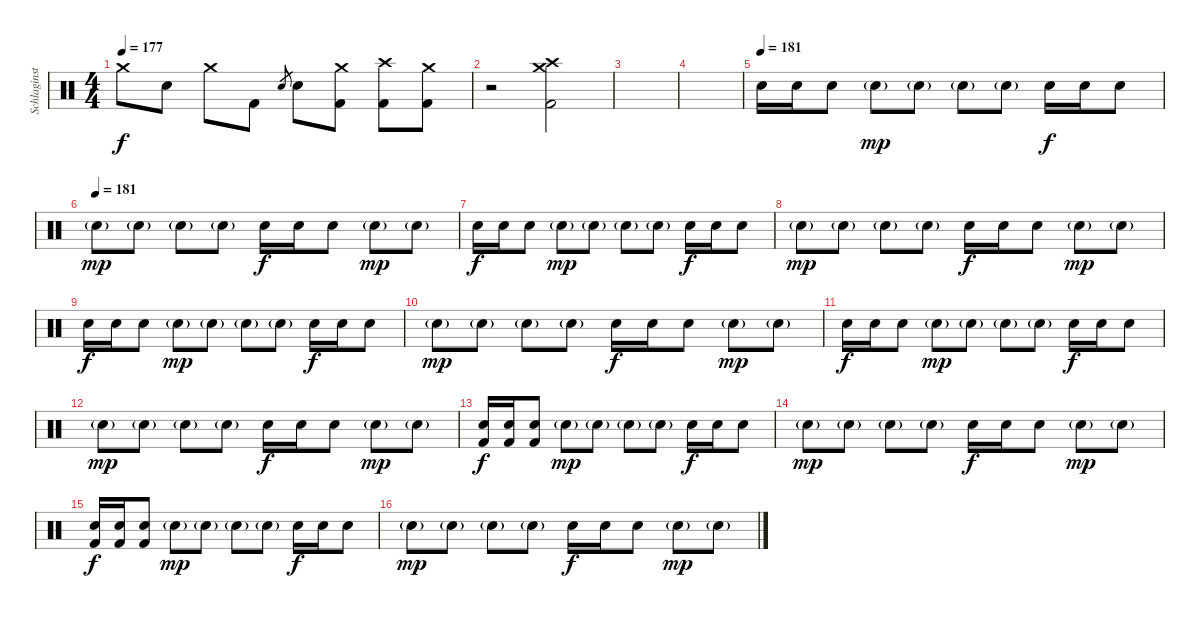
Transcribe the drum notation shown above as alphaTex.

\track ("Schlaginstrumente - Auswahl" "Schlaginst") {instrument percussion}
\staff {score}
\articulation defaults
\ts (4 4)
\tempo 177
\clef neutral
\ks c "Crash medium (hit)".8{dy f} "Snare (hit) 2".8 "Crash medium (hit)".8 "Kick (hit) 2".8 "Snare (hit) 2".8{gr} "Snare (hit) 2".8
("Crash medium (hit)" "Kick (hit) 2").8 ("Crash high (hit)" "Kick (hit) 2").8 ("Crash medium (hit)" "Kick (hit) 2").8 |
r.2 ("Crash medium (hit)" "Crash high (hit)" "Kick (hit) 2").2 |
|
|
\tempo (181)
"Snare (hit) 2".16{volume 7} "Snare (hit) 2".16 "Snare (hit) 2".8 "Snare (hit) 2"{g}.8{dy mp} "Snare (hit) 2"{g}.8 "Snare (hit) 2"{g}.8 "Snare (hit) 2"{g}.8 "Snare (hit) 2".16{dy f} "Snare (hit) 2".16 "Snare (hit) 2".8 |
\tempo (181)
"Snare (hit) 2"{g}.8{dy mp} "Snare (hit) 2"{g}.8 "Snare (hit) 2"{g}.8 "Snare (hit) 2"{g}.8 "Snare (hit) 2".16{dy f} "Snare (hit) 2".16 "Snare (hit) 2".8 "Snare (hit) 2"{g}.8{dy mp} "Snare (hit) 2"{g}.8 |
"Snare (hit) 2".16{dy f} "Snare (hit) 2".16 "Snare (hit) 2".8 "Snare (hit) 2"{g}.8{dy mp} "Snare (hit) 2"{g}.8 "Snare (hit) 2"{g}.8 "Snare (hit) 2"{g}.8 "Snare (hit) 2".16{dy f} "Snare (hit) 2".16 "Snare (hit) 2".8 |
"Snare (hit) 2"{g}.8{dy mp} "Snare (hit) 2"{g}.8 "Snare (hit) 2"{g}.8 "Snare (hit) 2"{g}.8 "Snare (hit) 2".16{dy f} "Snare (hit) 2".16 "Snare (hit) 2".8 "Snare (hit) 2"{g}.8{dy mp} "Snare (hit) 2"{g}.8 |
"Snare (hit) 2".16{dy f volume 13} "Snare (hit) 2".16 "Snare (hit) 2".8 "Snare (hit) 2"{g}.8{dy mp} "Snare (hit) 2"{g}.8 "Snare (hit) 2"{g}.8 "Snare (hit) 2"{g}.8 "Snare (hit) 2".16{dy f} "Snare (hit) 2".16 "Snare (hit) 2".8 |
"Snare (hit) 2"{g}.8{dy mp} "Snare (hit) 2"{g}.8 "Snare (hit) 2"{g}.8 "Snare (hit) 2"{g}.8 "Snare (hit) 2".16{dy f} "Snare (hit) 2".16 "Snare (hit) 2".8 "Snare (hit) 2"{g}.8{dy mp} "Snare (hit) 2"{g}.8 |
"Snare (hit) 2".16{dy f} "Snare (hit) 2".16 "Snare (hit) 2".8 "Snare (hit) 2"{g}.8{dy mp} "Snare (hit) 2"{g}.8 "Snare (hit) 2"{g}.8 "Snare (hit) 2"{g}.8 "Snare (hit) 2".16{dy f} "Snare (hit) 2".16 "Snare (hit) 2".8 |
"Snare (hit) 2"{g}.8{dy mp} "Snare (hit) 2"{g}.8 "Snare (hit) 2"{g}.8 "Snare (hit) 2"{g}.8 "Snare (hit) 2".16{dy f} "Snare (hit) 2".16 "Snare (hit) 2".8 "Snare (hit) 2"{g}.8{dy mp} "Snare (hit) 2"{g}.8 |
("Snare (hit) 2" "Kick (hit) 2").16{dy f} ("Snare (hit) 2" "Kick (hit) 2").16 ("Snare (hit) 2" "Kick (hit) 2").8 "Snare (hit) 2"{g}.8{dy mp} "Snare (hit) 2"{g}.8 "Snare (hit) 2"{g}.8 "Snare (hit) 2"{g}.8 "Snare (hit) 2".16{dy f} "Snare (hit) 2".16 "Snare (hit) 2".8 |
"Snare (hit) 2"{g}.8{dy mp} "Snare (hit) 2"{g}.8 "Snare (hit) 2"{g}.8 "Snare (hit) 2"{g}.8 "Snare (hit) 2".16{dy f} "Snare (hit) 2".16 "Snare (hit) 2".8 "Snare (hit) 2"{g}.8{dy mp} "Snare (hit) 2"{g}.8 |
("Snare (hit) 2" "Kick (hit) 2").16{dy f} ("Snare (hit) 2" "Kick (hit) 2").16 ("Snare (hit) 2" "Kick (hit) 2").8 "Snare (hit) 2"{g}.8{dy mp} "Snare (hit) 2"{g}.8 "Snare (hit) 2"{g}.8 "Snare (hit) 2"{g}.8 "Snare (hit) 2".16{dy f} "Snare (hit) 2".16 "Snare (hit) 2".8 |
"Snare (hit) 2"{g}.8{dy mp} "Snare (hit) 2"{g}.8 "Snare (hit) 2"{g}.8 "Snare (hit) 2"{g}.8 "Snare (hit) 2".16{dy f} "Snare (hit) 2".16 "Snare (hit) 2".8 "Snare (hit) 2"{g}.8{dy mp} "Snare (hit) 2"{g}.8
